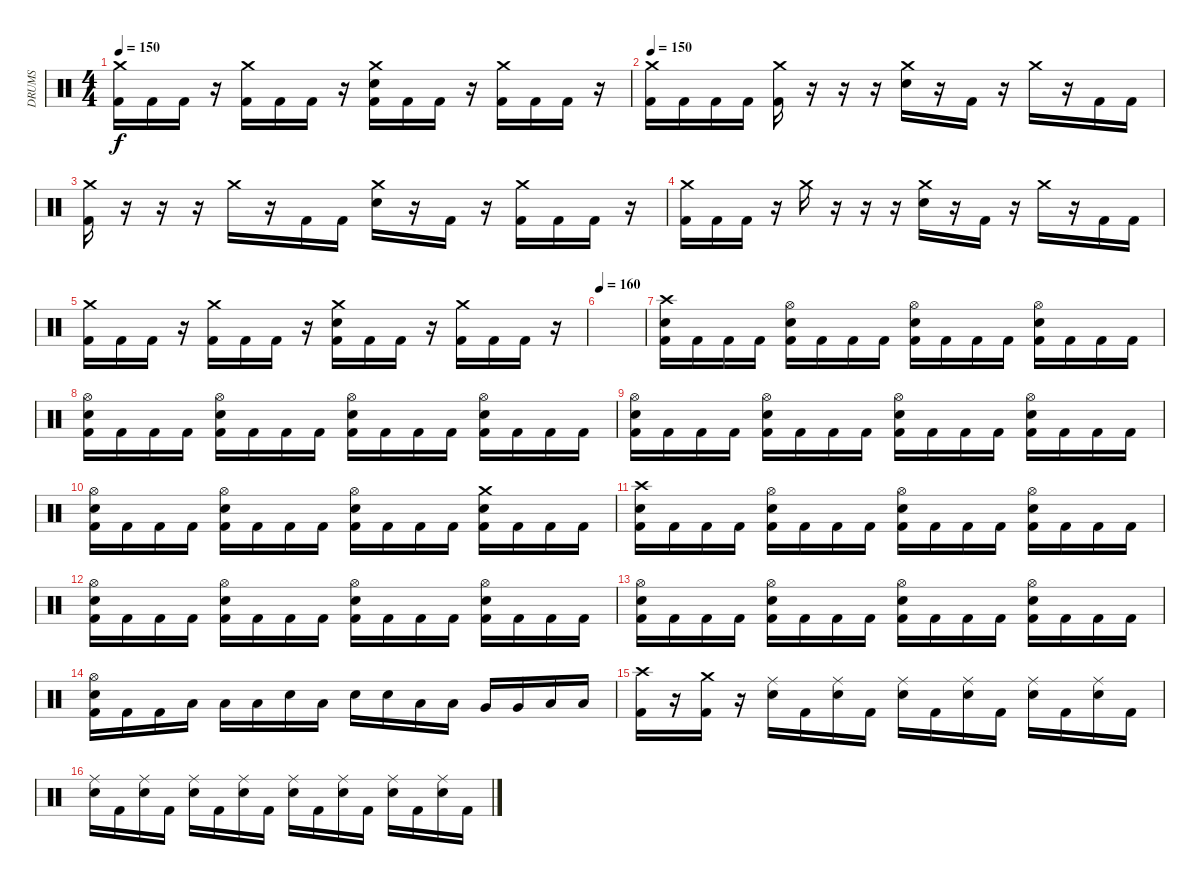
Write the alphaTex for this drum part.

\track ("DRUMS" "DRUMS") {instrument percussion}
\staff {score}
\articulation defaults
\ts (4 4)
\tempo 150
\clef neutral
\ks c
("Crash medium (hit)" "Kick (hit) 2").16{dy f} "Kick (hit) 2".16 "Kick (hit) 2".16 r.16 ("Crash medium (hit)" "Kick (hit) 2").16 "Kick (hit) 2".16 "Kick (hit) 2".16 r.16 ("Crash medium (hit)" "Electric Snare (hit)" "Kick (hit) 2").16 "Kick (hit) 2".16 "Kick (hit) 2".16 r.16 ("Crash medium (hit)" "Kick (hit) 2").16 "Kick (hit) 2".16 "Kick (hit) 2".16 r.16 |
\tempo 150
("Crash medium (hit)" "Kick (hit) 2").16 "Kick (hit) 2".16 "Kick (hit) 2".16 "Kick (hit) 2".16 ("Crash medium (hit)" "Kick (hit) 2").16 r.16 r.16 r.16 ("Crash medium (hit)" "Electric Snare (hit)").16 r.16 "Kick (hit) 2".16 r.16 "Crash medium (hit)".16 r.16 "Kick (hit) 2".16 "Kick (hit) 2".16 |
("Crash medium (hit)" "Kick (hit) 2").16 r.16 r.16 r.16 "Crash medium (hit)".16 r.16 "Kick (hit) 2".16 "Kick (hit) 2".16 ("Crash medium (hit)" "Electric Snare (hit)").16 r.16 "Kick (hit) 2".16 r.16 ("Crash medium (hit)" "Kick (hit) 2").16 "Kick (hit) 2".16 "Kick (hit) 2".16 r.16 |
("Crash medium (hit)" "Kick (hit) 2").16 "Kick (hit) 2".16 "Kick (hit) 2".16 r.16 "Crash medium (hit)".16 r.16 r.16 r.16 ("Crash medium (hit)" "Electric Snare (hit)").16 r.16 "Kick (hit) 2".16 r.16 "Crash medium (hit)".16 r.16 "Kick (hit) 2".16 "Kick (hit) 2".16 |
("Crash medium (hit)" "Kick (hit) 2").16 "Kick (hit) 2".16 "Kick (hit) 2".16 r.16 ("Crash medium (hit)" "Kick (hit) 2").16 "Kick (hit) 2".16 "Kick (hit) 2".16 r.16 ("Crash medium (hit)" "Electric Snare (hit)" "Kick (hit) 2").16 "Kick (hit) 2".16 "Kick (hit) 2".16 r.16 ("Crash medium (hit)" "Kick (hit) 2").16 "Kick (hit) 2".16 "Kick (hit) 2".16 r.16 |
\tempo 160
|
("Crash high (hit)" "Electric Snare (hit)" "Kick (hit) 2").16 "Kick (hit) 2".16 "Kick (hit) 2".16 "Kick (hit) 2".16 ("Hi-Hat (open)" "Electric Snare (hit)" "Kick (hit) 2").16 "Kick (hit) 2".16 "Kick (hit) 2".16 "Kick (hit) 2".16 ("Hi-Hat (open)" "Electric Snare (hit)" "Kick (hit) 2").16 "Kick (hit) 2".16 "Kick (hit) 2".16 "Kick (hit) 2".16 ("Hi-Hat (open)" "Electric Snare (hit)" "Kick (hit) 2").16 "Kick (hit) 2".16 "Kick (hit) 2".16 "Kick (hit) 2".16 |
("Hi-Hat (open)" "Electric Snare (hit)" "Kick (hit) 2").16 "Kick (hit) 2".16 "Kick (hit) 2".16 "Kick (hit) 2".16 ("Hi-Hat (open)" "Electric Snare (hit)" "Kick (hit) 2").16 "Kick (hit) 2".16 "Kick (hit) 2".16 "Kick (hit) 2".16 ("Hi-Hat (open)" "Electric Snare (hit)" "Kick (hit) 2").16 "Kick (hit) 2".16 "Kick (hit) 2".16 "Kick (hit) 2".16 ("Hi-Hat (open)" "Electric Snare (hit)" "Kick (hit) 2").16 "Kick (hit) 2".16 "Kick (hit) 2".16 "Kick (hit) 2".16 |
("Hi-Hat (open)" "Electric Snare (hit)" "Kick (hit) 2").16 "Kick (hit) 2".16 "Kick (hit) 2".16 "Kick (hit) 2".16 ("Hi-Hat (open)" "Electric Snare (hit)" "Kick (hit) 2").16 "Kick (hit) 2".16 "Kick (hit) 2".16 "Kick (hit) 2".16 ("Hi-Hat (open)" "Electric Snare (hit)" "Kick (hit) 2").16 "Kick (hit) 2".16 "Kick (hit) 2".16 "Kick (hit) 2".16 ("Hi-Hat (open)" "Electric Snare (hit)" "Kick (hit) 2").16 "Kick (hit) 2".16 "Kick (hit) 2".16 "Kick (hit) 2".16 |
("Hi-Hat (open)" "Electric Snare (hit)" "Kick (hit) 2").16 "Kick (hit) 2".16 "Kick (hit) 2".16 "Kick (hit) 2".16 ("Hi-Hat (open)" "Electric Snare (hit)" "Kick (hit) 2").16 "Kick (hit) 2".16 "Kick (hit) 2".16 "Kick (hit) 2".16 ("Hi-Hat (open)" "Electric Snare (hit)" "Kick (hit) 2").16 "Kick (hit) 2".16 "Kick (hit) 2".16 "Kick (hit) 2".16 ("Crash medium (hit)" "Electric Snare (hit)" "Kick (hit) 2").16 "Kick (hit) 2".16 "Kick (hit) 2".16 "Kick (hit) 2".16 |
("Crash high (hit)" "Electric Snare (hit)" "Kick (hit) 2").16 "Kick (hit) 2".16 "Kick (hit) 2".16 "Kick (hit) 2".16 ("Hi-Hat (open)" "Electric Snare (hit)" "Kick (hit) 2").16 "Kick (hit) 2".16 "Kick (hit) 2".16 "Kick (hit) 2".16 ("Hi-Hat (open)" "Electric Snare (hit)" "Kick (hit) 2").16 "Kick (hit) 2".16 "Kick (hit) 2".16 "Kick (hit) 2".16 ("Hi-Hat (open)" "Electric Snare (hit)" "Kick (hit) 2").16 "Kick (hit) 2".16 "Kick (hit) 2".16 "Kick (hit) 2".16 |
("Hi-Hat (open)" "Electric Snare (hit)" "Kick (hit) 2").16 "Kick (hit) 2".16 "Kick (hit) 2".16 "Kick (hit) 2".16 ("Hi-Hat (open)" "Electric Snare (hit)" "Kick (hit) 2").16 "Kick (hit) 2".16 "Kick (hit) 2".16 "Kick (hit) 2".16 ("Hi-Hat (open)" "Electric Snare (hit)" "Kick (hit) 2").16 "Kick (hit) 2".16 "Kick (hit) 2".16 "Kick (hit) 2".16 ("Hi-Hat (open)" "Electric Snare (hit)" "Kick (hit) 2").16 "Kick (hit) 2".16 "Kick (hit) 2".16 "Kick (hit) 2".16 |
("Hi-Hat (open)" "Electric Snare (hit)" "Kick (hit) 2").16 "Kick (hit) 2".16 "Kick (hit) 2".16 "Kick (hit) 2".16 ("Hi-Hat (open)" "Electric Snare (hit)" "Kick (hit) 2").16 "Kick (hit) 2".16 "Kick (hit) 2".16 "Kick (hit) 2".16 ("Hi-Hat (open)" "Electric Snare (hit)" "Kick (hit) 2").16 "Kick (hit) 2".16 "Kick (hit) 2".16 "Kick (hit) 2".16 ("Hi-Hat (open)" "Electric Snare (hit)" "Kick (hit) 2").16 "Kick (hit) 2".16 "Kick (hit) 2".16 "Kick (hit) 2".16 |
("Hi-Hat (open)" "Electric Snare (hit)" "Kick (hit) 2").16 "Kick (hit) 2".16 "Kick (hit) 2".16 "Low Tom (hit)".16 "Low Tom (hit)".16 "Low Tom (hit)".16 "Electric Snare (hit)".16 "Low Tom (hit)".16 "Electric Snare (hit)".16 "Electric Snare (hit)".16 "Low Tom (hit)".16 "Low Tom (hit)".16 "Very Low Tom (hit)".16 "Very Low Tom (hit)".16 "Low Floor Tom (hit)".16 "Low Floor Tom (hit)".16 |
("Crash high (hit)" "Kick (hit) 2").16 r.16 ("Crash medium (hit)" "Kick (hit) 2").16 r.16 ("Ride (middle)" "Electric Snare (hit)").16 "Kick (hit) 2".16 ("Ride (middle)" "Electric Snare (hit)").16 "Kick (hit) 2".16 ("Ride (middle)" "Electric Snare (hit)").16 "Kick (hit) 2".16 ("Ride (middle)" "Electric Snare (hit)").16 "Kick (hit) 2".16 ("Ride (middle)" "Electric Snare (hit)").16 "Kick (hit) 2".16 ("Ride (middle)" "Electric Snare (hit)").16 "Kick (hit) 2".16 |
("Ride (middle)" "Electric Snare (hit)").16 "Kick (hit) 2".16 ("Ride (middle)" "Electric Snare (hit)").16 "Kick (hit) 2".16 ("Ride (middle)" "Electric Snare (hit)").16 "Kick (hit) 2".16 ("Ride (middle)" "Electric Snare (hit)").16 "Kick (hit) 2".16 ("Ride (middle)" "Electric Snare (hit)").16 "Kick (hit) 2".16 ("Ride (middle)" "Electric Snare (hit)").16 "Kick (hit) 2".16 ("Ride (middle)" "Electric Snare (hit)").16 "Kick (hit) 2".16 ("Ride (middle)" "Electric Snare (hit)").16 "Kick (hit) 2".16
